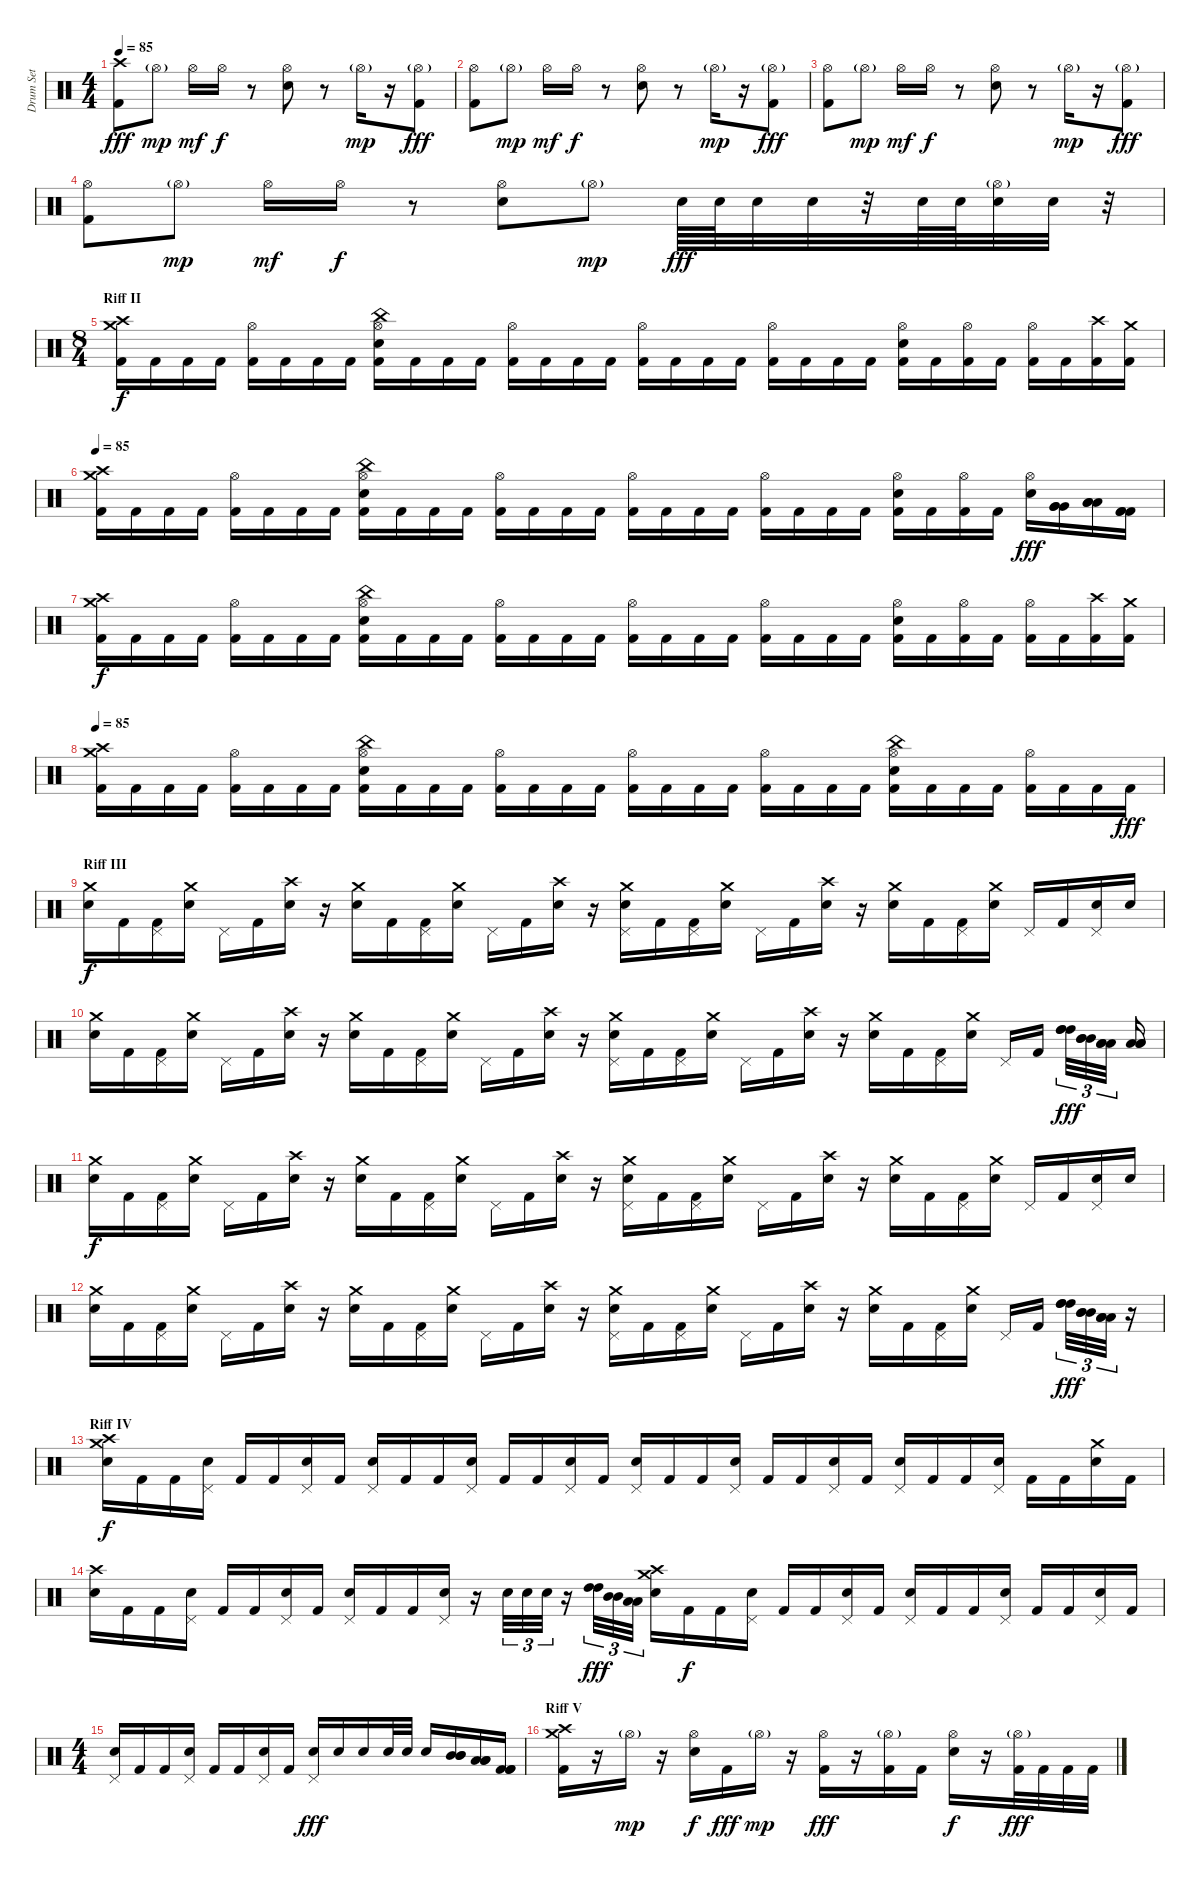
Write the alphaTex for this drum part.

\track ("Drum Set" "Drum Set") {instrument percussion}
\staff {score}
\articulation defaults
\ts (4 4)
\tempo 85
\clef neutral
\ks c
("Crash high (hit)" "Kick (hit) 2").8{dy fff} "Hi-Hat (open)"{g}.8{dy mp} "Hi-Hat (open)".16{dy mf} "Hi-Hat (open)".16{dy f} r.8 ("Hi-Hat (open)" "Snare (hit) 2").8 r.8 "Hi-Hat (open)"{g}.16{dy mp} r.16 ("Hi-Hat (open)"{g} "Kick (hit) 2").8{dy fff} |
("Hi-Hat (open)" "Kick (hit) 2").8 "Hi-Hat (open)"{g}.8{dy mp} "Hi-Hat (open)".16{dy mf} "Hi-Hat (open)".16{dy f} r.8 ("Hi-Hat (open)" "Snare (hit) 2").8 r.8 "Hi-Hat (open)"{g}.16{dy mp} r.16 ("Hi-Hat (open)"{g} "Kick (hit) 2").8{dy fff} |
("Hi-Hat (open)" "Kick (hit) 2").8 "Hi-Hat (open)"{g}.8{dy mp} "Hi-Hat (open)".16{dy mf} "Hi-Hat (open)".16{dy f} r.8 ("Hi-Hat (open)" "Snare (hit) 2").8 r.8 "Hi-Hat (open)"{g}.16{dy mp} r.16 ("Hi-Hat (open)"{g} "Kick (hit) 2").8{dy fff} |
("Hi-Hat (open)" "Kick (hit) 2").8 "Hi-Hat (open)"{g}.8{dy mp} "Hi-Hat (open)".16{dy mf} "Hi-Hat (open)".16{dy f} r.8 ("Hi-Hat (open)" "Snare (hit) 2").8 "Hi-Hat (open)"{g}.8{dy mp} "Snare (hit) 2".64{dy fff} "Snare (hit) 2".64 "Snare (hit) 2".32 "Snare (hit) 2".32 r.32 "Snare (hit) 2".64 "Snare (hit) 2".64 ("Hi-Hat (open)"{g} "Snare (hit) 2").32 "Snare (hit) 2".32 r.32 |
\ts (8 4)
\section ("" "Riff II")
("Crash medium (hit)" "Crash high (hit)" "Kick (hit) 2").16{dy f} "Kick (hit) 2".16 "Kick (hit) 2".16 "Kick (hit) 2".16 ("Hi-Hat (open)" "Kick (hit) 2").16 "Kick (hit) 2".16 "Kick (hit) 2".16 "Kick (hit) 2".16 ("China (hit)" "Hi-Hat (open)" "Snare (hit) 2" "Kick (hit) 2").16 "Kick (hit) 2".16 "Kick (hit) 2".16 "Kick (hit) 2".16 ("Hi-Hat (open)" "Kick (hit) 2").16 "Kick (hit) 2".16 "Kick (hit) 2".16 "Kick (hit) 2".16 ("Hi-Hat (open)" "Kick (hit) 2").16 "Kick (hit) 2".16 "Kick (hit) 2".16 "Kick (hit) 2".16 ("Hi-Hat (open)" "Kick (hit) 2").16 "Kick (hit) 2".16 "Kick (hit) 2".16 "Kick (hit) 2".16 ("Hi-Hat (open)" "Snare (hit) 2" "Kick (hit) 2").16 "Kick (hit) 2".16 ("Hi-Hat (open)" "Kick (hit) 2").16 "Kick (hit) 2".16 ("Hi-Hat (open)" "Kick (hit) 2").16 "Kick (hit) 2".16 ("Crash high (hit)" "Kick (hit) 2").16 ("Crash medium (hit)" "Kick (hit) 2").16 |
\tempo 85
("Crash medium (hit)" "Crash high (hit)" "Kick (hit) 2").16 "Kick (hit) 2".16 "Kick (hit) 2".16 "Kick (hit) 2".16 ("Hi-Hat (open)" "Kick (hit) 2").16 "Kick (hit) 2".16 "Kick (hit) 2".16 "Kick (hit) 2".16 ("China (hit)" "Hi-Hat (open)" "Snare (hit) 2" "Kick (hit) 2").16 "Kick (hit) 2".16 "Kick (hit) 2".16 "Kick (hit) 2".16 ("Hi-Hat (open)" "Kick (hit) 2").16 "Kick (hit) 2".16 "Kick (hit) 2".16 "Kick (hit) 2".16 ("Hi-Hat (open)" "Kick (hit) 2").16 "Kick (hit) 2".16 "Kick (hit) 2".16 "Kick (hit) 2".16 ("Hi-Hat (open)" "Kick (hit) 2").16 "Kick (hit) 2".16 "Kick (hit) 2".16 "Kick (hit) 2".16 ("Hi-Hat (open)" "Snare (hit) 2" "Kick (hit) 2").16 "Kick (hit) 2".16 ("Hi-Hat (open)" "Kick (hit) 2").16 "Kick (hit) 2".16 ("Hi-Hat (open)" "Snare (hit) 2").16{dy fff} ("Very Low Tom (hit)" "Very Low Tom (hit)" "Very Low Tom (hit)").16 ("Low Floor Tom (hit)" "Low Floor Tom (hit)" "Low Floor Tom (hit)").16 ("Kick (hit) 2" "Kick (hit) 2" "Kick (hit) 2").16 |
("Crash medium (hit)" "Crash high (hit)" "Kick (hit) 2").16{dy f} "Kick (hit) 2".16 "Kick (hit) 2".16 "Kick (hit) 2".16 ("Hi-Hat (open)" "Kick (hit) 2").16 "Kick (hit) 2".16 "Kick (hit) 2".16 "Kick (hit) 2".16 ("China (hit)" "Hi-Hat (open)" "Snare (hit) 2" "Kick (hit) 2").16 "Kick (hit) 2".16 "Kick (hit) 2".16 "Kick (hit) 2".16 ("Hi-Hat (open)" "Kick (hit) 2").16 "Kick (hit) 2".16 "Kick (hit) 2".16 "Kick (hit) 2".16 ("Hi-Hat (open)" "Kick (hit) 2").16 "Kick (hit) 2".16 "Kick (hit) 2".16 "Kick (hit) 2".16 ("Hi-Hat (open)" "Kick (hit) 2").16 "Kick (hit) 2".16 "Kick (hit) 2".16 "Kick (hit) 2".16 ("Hi-Hat (open)" "Snare (hit) 2" "Kick (hit) 2").16 "Kick (hit) 2".16 ("Hi-Hat (open)" "Kick (hit) 2").16 "Kick (hit) 2".16 ("Hi-Hat (open)" "Kick (hit) 2").16 "Kick (hit) 2".16 ("Crash high (hit)" "Kick (hit) 2").16 ("Crash medium (hit)" "Kick (hit) 2").16 |
\tempo 85
("Crash medium (hit)" "Crash high (hit)" "Kick (hit) 2").16 "Kick (hit) 2".16 "Kick (hit) 2".16 "Kick (hit) 2".16 ("Hi-Hat (open)" "Kick (hit) 2").16 "Kick (hit) 2".16 "Kick (hit) 2".16 "Kick (hit) 2".16 ("China (hit)" "Hi-Hat (open)" "Snare (hit) 2" "Kick (hit) 2").16 "Kick (hit) 2".16 "Kick (hit) 2".16 "Kick (hit) 2".16 ("Hi-Hat (open)" "Kick (hit) 2").16 "Kick (hit) 2".16 "Kick (hit) 2".16 "Kick (hit) 2".16 ("Hi-Hat (open)" "Kick (hit) 2").16 "Kick (hit) 2".16 "Kick (hit) 2".16 "Kick (hit) 2".16 ("Hi-Hat (open)" "Kick (hit) 2").16 "Kick (hit) 2".16 "Kick (hit) 2".16 "Kick (hit) 2".16 ("China (hit)" "Hi-Hat (open)" "Snare (hit) 2" "Kick (hit) 2").16 "Kick (hit) 2".16 "Kick (hit) 2".16 "Kick (hit) 2".16 ("Hi-Hat (open)" "Kick (hit) 2").16 "Kick (hit) 2".16 "Kick (hit) 2".16 "Kick (hit) 2".16{dy fff} |
\section ("" "Riff III")
("Crash medium (hit)" "Snare (hit) 2").16{dy f} "Kick (hit) 2".16 ("Pedal Hi-Hat (hit)" "Kick (hit) 2").16 ("Crash medium (hit)" "Snare (hit) 2").16 "Pedal Hi-Hat (hit)".16 "Kick (hit) 2".16 ("Crash high (hit)" "Snare (hit) 2").16 r.16 ("Crash medium (hit)" "Snare (hit) 2").16 "Kick (hit) 2".16 ("Pedal Hi-Hat (hit)" "Kick (hit) 2").16 ("Crash medium (hit)" "Snare (hit) 2").16 "Pedal Hi-Hat (hit)".16 "Kick (hit) 2".16 ("Crash high (hit)" "Snare (hit) 2").16 r.16 ("Crash medium (hit)" "Pedal Hi-Hat (hit)" "Snare (hit) 2").16 "Kick (hit) 2".16 ("Pedal Hi-Hat (hit)" "Kick (hit) 2").16 ("Crash medium (hit)" "Snare (hit) 2").16 "Pedal Hi-Hat (hit)".16 "Kick (hit) 2".16 ("Crash high (hit)" "Snare (hit) 2").16 r.16 ("Crash medium (hit)" "Snare (hit) 2").16 "Kick (hit) 2".16 ("Pedal Hi-Hat (hit)" "Kick (hit) 2").16 ("Crash medium (hit)" "Snare (hit) 2").16 "Pedal Hi-Hat (hit)".16 "Kick (hit) 2".16 ("Pedal Hi-Hat (hit)" "Snare (hit) 2").16 "Snare (hit) 2".16 |
("Crash medium (hit)" "Snare (hit) 2").16 "Kick (hit) 2".16 ("Pedal Hi-Hat (hit)" "Kick (hit) 2").16 ("Crash medium (hit)" "Snare (hit) 2").16 "Pedal Hi-Hat (hit)".16 "Kick (hit) 2".16 ("Crash high (hit)" "Snare (hit) 2").16 r.16 ("Crash medium (hit)" "Snare (hit) 2").16 "Kick (hit) 2".16 ("Pedal Hi-Hat (hit)" "Kick (hit) 2").16 ("Crash medium (hit)" "Snare (hit) 2").16 "Pedal Hi-Hat (hit)".16 "Kick (hit) 2".16 ("Crash high (hit)" "Snare (hit) 2").16 r.16 ("Crash medium (hit)" "Pedal Hi-Hat (hit)" "Snare (hit) 2").16 "Kick (hit) 2".16 ("Pedal Hi-Hat (hit)" "Kick (hit) 2").16 ("Crash medium (hit)" "Snare (hit) 2").16 "Pedal Hi-Hat (hit)".16 "Kick (hit) 2".16 ("Crash high (hit)" "Snare (hit) 2").16 r.16 ("Crash medium (hit)" "Snare (hit) 2").16 "Kick (hit) 2".16 ("Pedal Hi-Hat (hit)" "Kick (hit) 2").16 ("Crash medium (hit)" "Snare (hit) 2").16 "Pedal Hi-Hat (hit)".16 "Kick (hit) 2".16 ("High Tom (hit)" "High Tom (hit)" "High Tom (hit)").32{tu (3 2) dy fff} ("Mid Tom (hit)" "Mid Tom (hit)" "Mid Tom (hit)").32{tu (3 2)} ("Low Tom (hit)" "Low Tom (hit)" "Low Tom (hit)").32{tu (3 2)} ("Low Tom (hit)" "Low Tom (hit)" "Low Tom (hit)").16 |
("Crash medium (hit)" "Snare (hit) 2").16{dy f} "Kick (hit) 2".16 ("Pedal Hi-Hat (hit)" "Kick (hit) 2").16 ("Crash medium (hit)" "Snare (hit) 2").16 "Pedal Hi-Hat (hit)".16 "Kick (hit) 2".16 ("Crash high (hit)" "Snare (hit) 2").16 r.16 ("Crash medium (hit)" "Snare (hit) 2").16 "Kick (hit) 2".16 ("Pedal Hi-Hat (hit)" "Kick (hit) 2").16 ("Crash medium (hit)" "Snare (hit) 2").16 "Pedal Hi-Hat (hit)".16 "Kick (hit) 2".16 ("Crash high (hit)" "Snare (hit) 2").16 r.16 ("Crash medium (hit)" "Pedal Hi-Hat (hit)" "Snare (hit) 2").16 "Kick (hit) 2".16 ("Pedal Hi-Hat (hit)" "Kick (hit) 2").16 ("Crash medium (hit)" "Snare (hit) 2").16 "Pedal Hi-Hat (hit)".16 "Kick (hit) 2".16 ("Crash high (hit)" "Snare (hit) 2").16 r.16 ("Crash medium (hit)" "Snare (hit) 2").16 "Kick (hit) 2".16 ("Pedal Hi-Hat (hit)" "Kick (hit) 2").16 ("Crash medium (hit)" "Snare (hit) 2").16 "Pedal Hi-Hat (hit)".16 "Kick (hit) 2".16 ("Pedal Hi-Hat (hit)" "Snare (hit) 2").16 "Snare (hit) 2".16 |
("Crash medium (hit)" "Snare (hit) 2").16 "Kick (hit) 2".16 ("Pedal Hi-Hat (hit)" "Kick (hit) 2").16 ("Crash medium (hit)" "Snare (hit) 2").16 "Pedal Hi-Hat (hit)".16 "Kick (hit) 2".16 ("Crash high (hit)" "Snare (hit) 2").16 r.16 ("Crash medium (hit)" "Snare (hit) 2").16 "Kick (hit) 2".16 ("Pedal Hi-Hat (hit)" "Kick (hit) 2").16 ("Crash medium (hit)" "Snare (hit) 2").16 "Pedal Hi-Hat (hit)".16 "Kick (hit) 2".16 ("Crash high (hit)" "Snare (hit) 2").16 r.16 ("Crash medium (hit)" "Pedal Hi-Hat (hit)" "Snare (hit) 2").16 "Kick (hit) 2".16 ("Pedal Hi-Hat (hit)" "Kick (hit) 2").16 ("Crash medium (hit)" "Snare (hit) 2").16 "Pedal Hi-Hat (hit)".16 "Kick (hit) 2".16 ("Crash high (hit)" "Snare (hit) 2").16 r.16 ("Crash medium (hit)" "Snare (hit) 2").16 "Kick (hit) 2".16 ("Pedal Hi-Hat (hit)" "Kick (hit) 2").16 ("Crash medium (hit)" "Snare (hit) 2").16 "Pedal Hi-Hat (hit)".16 "Kick (hit) 2".16 ("High Tom (hit)" "High Tom (hit)" "High Tom (hit)").32{tu (3 2) dy fff} ("Mid Tom (hit)" "Mid Tom (hit)" "Mid Tom (hit)").32{tu (3 2)} ("Low Tom (hit)" "Low Tom (hit)" "Low Tom (hit)").32{tu (3 2)} r.16 |
\section ("" "Riff IV")
("Crash high (hit)" "Crash medium (hit)" "Snare (hit) 2").16{dy f} "Kick (hit) 2".16 "Kick (hit) 2".16 ("Pedal Hi-Hat (hit)" "Snare (hit) 2").16 "Kick (hit) 2".16 "Kick (hit) 2".16 ("Pedal Hi-Hat (hit)" "Snare (hit) 2").16 "Kick (hit) 2".16 ("Pedal Hi-Hat (hit)" "Snare (hit) 2").16 "Kick (hit) 2".16 "Kick (hit) 2".16 ("Pedal Hi-Hat (hit)" "Snare (hit) 2").16 "Kick (hit) 2".16 "Kick (hit) 2".16 ("Pedal Hi-Hat (hit)" "Snare (hit) 2").16 "Kick (hit) 2".16 ("Pedal Hi-Hat (hit)" "Snare (hit) 2").16 "Kick (hit) 2".16 "Kick (hit) 2".16 ("Pedal Hi-Hat (hit)" "Snare (hit) 2").16 "Kick (hit) 2".16 "Kick (hit) 2".16 ("Pedal Hi-Hat (hit)" "Snare (hit) 2").16 "Kick (hit) 2".16 ("Pedal Hi-Hat (hit)" "Snare (hit) 2").16 "Kick (hit) 2".16 "Kick (hit) 2".16 ("Pedal Hi-Hat (hit)" "Snare (hit) 2").16 "Kick (hit) 2".16 "Kick (hit) 2".16 ("Crash medium (hit)" "Snare (hit) 2").16 "Kick (hit) 2".16 |
("Crash high (hit)" "Snare (hit) 2").16 "Kick (hit) 2".16 "Kick (hit) 2".16 ("Pedal Hi-Hat (hit)" "Snare (hit) 2").16 "Kick (hit) 2".16 "Kick (hit) 2".16 ("Pedal Hi-Hat (hit)" "Snare (hit) 2").16 "Kick (hit) 2".16 ("Pedal Hi-Hat (hit)" "Snare (hit) 2").16 "Kick (hit) 2".16 "Kick (hit) 2".16 ("Pedal Hi-Hat (hit)" "Snare (hit) 2").16 r.16 "Snare (hit) 2".32{tu (3 2)} "Snare (hit) 2".32{tu (3 2)} "Snare (hit) 2".32{tu (3 2)} r.16 ("High Tom (hit)" "High Tom (hit)").32{tu (3 2) dy fff} ("Mid Tom (hit)" "Mid Tom (hit)").32{tu (3 2)} ("Low Tom (hit)" "Low Tom (hit)").32{tu (3 2)} ("Crash high (hit)" "Crash medium (hit)" "Snare (hit) 2").16 "Kick (hit) 2".16{dy f} "Kick (hit) 2".16 ("Pedal Hi-Hat (hit)" "Snare (hit) 2").16 "Kick (hit) 2".16 "Kick (hit) 2".16 ("Pedal Hi-Hat (hit)" "Snare (hit) 2").16 "Kick (hit) 2".16 ("Pedal Hi-Hat (hit)" "Snare (hit) 2").16 "Kick (hit) 2".16 "Kick (hit) 2".16 ("Pedal Hi-Hat (hit)" "Snare (hit) 2").16 "Kick (hit) 2".16 "Kick (hit) 2".16 ("Pedal Hi-Hat (hit)" "Snare (hit) 2").16 "Kick (hit) 2".16 |
\ts (4 4)
("Pedal Hi-Hat (hit)" "Snare (hit) 2").16 "Kick (hit) 2".16 "Kick (hit) 2".16 ("Pedal Hi-Hat (hit)" "Snare (hit) 2").16 "Kick (hit) 2".16 "Kick (hit) 2".16 ("Pedal Hi-Hat (hit)" "Snare (hit) 2").16 "Kick (hit) 2".16 ("Pedal Hi-Hat (hit)" "Snare (hit) 2").16{dy fff} "Snare (hit) 2".16 "Snare (hit) 2".16 "Snare (hit) 2".32 "Snare (hit) 2".32 "Snare (hit) 2".16 ("Mid Tom (hit)" "Mid Tom (hit)" "Mid Tom (hit)").16 ("Low Tom (hit)" "Low Tom (hit)" "Low Tom (hit)").16 ("Kick (hit) 2" "Kick (hit) 2" "Kick (hit) 2").16 |
\section ("" "Riff V")
("Crash high (hit)" "Crash medium (hit)" "Kick (hit) 2").16 r.16 "Hi-Hat (open)"{g}.16{dy mp} r.16 ("Hi-Hat (open)" "Snare (hit) 2").16{dy f} "Kick (hit) 2".16{dy fff} "Hi-Hat (open)"{g}.16{dy mp} r.16 ("Hi-Hat (open)" "Kick (hit) 2").16{dy fff} r.16 ("Hi-Hat (open)"{g} "Kick (hit) 2").16 "Kick (hit) 2".16 ("Hi-Hat (open)" "Snare (hit) 2").16{dy f} r.16 ("Hi-Hat (open)"{g} "Kick (hit) 2").32{dy fff} "Kick (hit) 2".32 "Kick (hit) 2".32 "Kick (hit) 2".32
